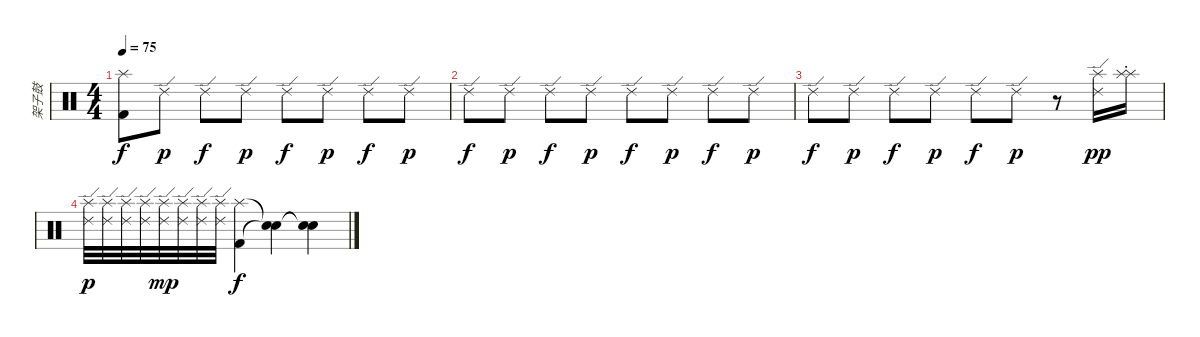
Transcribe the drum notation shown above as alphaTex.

\track ("架子鼓" "架子鼓") {instrument percussion}
\staff {score}
\articulation defaults
\ts (4 4)
\tempo 75
\clef neutral
\ks c
("Splash (hit)" "Kick (hit) 2").8{dy f} "Ride (edge) 2".8{dy p} "Ride (edge) 2".8{dy f} "Ride (edge) 2".8{dy p} "Ride (edge) 2".8{dy f} "Ride (edge) 2".8{dy p} "Ride (edge) 2".8{dy f} "Ride (edge) 2".8{dy p} |
"Ride (edge) 2".8{dy f} "Ride (edge) 2".8{dy p} "Ride (edge) 2".8{dy f} "Ride (edge) 2".8{dy p} "Ride (edge) 2".8{dy f} "Ride (edge) 2".8{dy p} "Ride (edge) 2".8{dy f} "Ride (edge) 2".8{dy p} |
"Ride (edge) 2".8{dy f} "Ride (edge) 2".8{dy p} "Ride (edge) 2".8{dy f} "Ride (edge) 2".8{dy p} "Ride (edge) 2".8{dy f} "Ride (edge) 2".8{dy p} r.8 ("Splash (hit)" "Ride (edge) 2").16{dy pp} ("Splash (hit)" "Splash (choke)").16 |
("Splash (hit)" "Ride (edge) 2").32{dy p} ("Splash (hit)" "Ride (edge) 2").32 ("Splash (hit)" "Ride (edge) 2").32 ("Splash (hit)" "Ride (edge) 2").32 ("Splash (hit)" "Ride (edge) 2").32{dy mp} ("Splash (hit)" "Ride (edge) 2").32 ("Splash (hit)" "Ride (edge) 2").32 ("Splash (hit)" "Ride (edge) 2").32 ("Splash (hit)" "Kick (hit) 2").4{dy f} ("Snare (hit)"{t} "Snare (hit)"{t}).4 ("Snare (hit)"{t} "Snare (hit)"{t}).4
